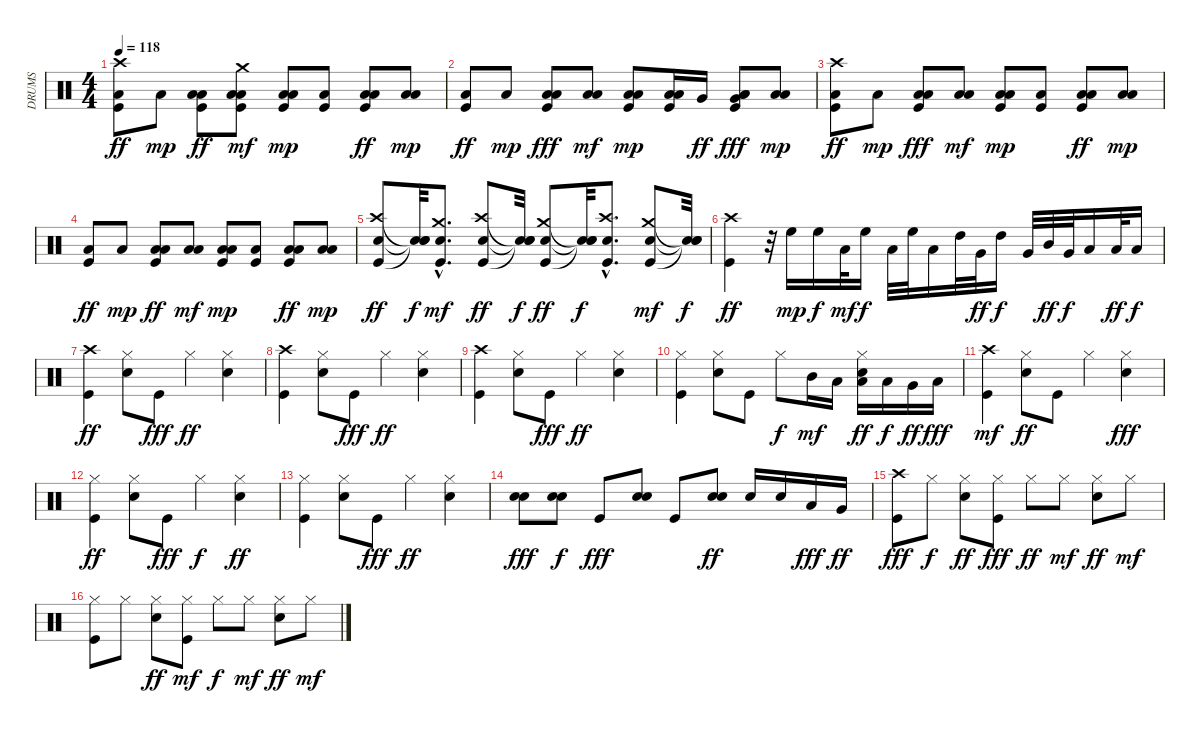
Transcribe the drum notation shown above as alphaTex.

\track ("DRUMS" "DRUMS") {instrument percussion}
\staff {score}
\articulation defaults
\ts (4 4)
\tempo 118
\clef neutral
\ks c
("Kick (hit)" "Low Tom (hit)" "Crash high (hit)").8{dy ff} "Low Floor Tom (hit)".8{dy mp} ("Kick (hit)" "Low Floor Tom (hit)" "Low Tom (hit)").8{dy ff} ("Kick (hit)" "Low Floor Tom (hit)" "Low Tom (hit)" "Crash medium (hit)").8{dy mf} ("Kick (hit)" "Low Floor Tom (hit)" "Low Tom (hit)").8{dy mp} ("Kick (hit)" "Low Floor Tom (hit)").8 ("Kick (hit)" "Low Floor Tom (hit)" "Low Tom (hit)").8{dy ff} ("Low Floor Tom (hit)" "Low Tom (hit)").8{dy mp} |
("Kick (hit)" "Low Tom (hit)").8{dy ff} "Low Floor Tom (hit)".8{dy mp} ("Kick (hit)" "Low Floor Tom (hit)" "Low Tom (hit)").8{dy fff} ("Low Floor Tom (hit)" "Low Tom (hit)").8{dy mf} ("Kick (hit)" "Low Floor Tom (hit)" "Low Tom (hit)").8{dy mp} ("Kick (hit)" "Low Floor Tom (hit)" "Low Tom (hit)").16 "Very Low Tom (hit)".16{dy ff} ("Kick (hit)" "Low Floor Tom (hit)" "Very Low Tom (hit)" "Low Tom (hit)").8{dy fff} ("Low Floor Tom (hit)" "Low Tom (hit)").8{dy mp} |
("Kick (hit)" "Low Tom (hit)" "Crash high (hit)").8{dy ff} "Low Floor Tom (hit)".8{dy mp} ("Kick (hit)" "Low Floor Tom (hit)" "Low Tom (hit)").8{dy fff} ("Low Floor Tom (hit)" "Low Tom (hit)").8{dy mf} ("Kick (hit)" "Low Floor Tom (hit)" "Low Tom (hit)").8{dy mp} ("Kick (hit)" "Low Floor Tom (hit)").8 ("Kick (hit)" "Low Floor Tom (hit)" "Low Tom (hit)").8{dy ff} ("Low Floor Tom (hit)" "Low Tom (hit)").8{dy mp} |
("Kick (hit)" "Low Tom (hit)").8{dy ff} "Low Floor Tom (hit)".8{dy mp} ("Kick (hit)" "Low Floor Tom (hit)" "Low Tom (hit)").8{dy ff} ("Low Floor Tom (hit)" "Low Tom (hit)").8{dy mf} ("Kick (hit)" "Low Floor Tom (hit)" "Low Tom (hit)").8{dy mp} ("Kick (hit)" "Low Floor Tom (hit)").8 ("Kick (hit)" "Low Floor Tom (hit)" "Low Tom (hit)").8{dy ff} ("Low Floor Tom (hit)" "Low Tom (hit)").8{dy mp} |
("Kick (hit)" "Electric Snare (hit)" "Crash high (hit)").8{dy ff} ("Snare (hit)"{t} "Snare (hit)"{t} "Snare (hit)"{t}).32{dy f} ("Kick (hit)"{hac} "Electric Snare (hit)"{hac} "Crash medium (hit)"{hac}).8{d dy mf} ("Kick (hit)" "Electric Snare (hit)" "Crash high (hit)").8{dy ff} ("Snare (hit)"{t} "Snare (hit)"{t} "Snare (hit)"{t}).32{dy f} ("Kick (hit)" "Electric Snare (hit)" "Crash medium (hit)").8{dy ff} ("Snare (hit)"{t} "Snare (hit)"{t} "Snare (hit)"{t}).32{dy f} ("Kick (hit)"{hac} "Electric Snare (hit)"{hac} "Crash high (hit)"{hac}).8{d} ("Kick (hit)" "Electric Snare (hit)" "Crash medium (hit)").8{dy mf} ("Snare (hit)"{t} "Snare (hit)"{t} "Snare (hit)"{t}).32{dy f} |
("Kick (hit)" "Crash high (hit)").4{dy ff} r.32 "High Floor Tom (hit)".16{dy mp} "High Floor Tom (hit)".16{dy f} "Low Tom (hit)".32{dy mf} "High Floor Tom (hit)".16{dy f} "Low Tom (hit)".32 "High Floor Tom (hit)".32 "Low Tom (hit)".16 "High Tom (hit)".32 "Very Low Tom (hit)".32{dy ff} "High Tom (hit)".16{dy f} "Very Low Tom (hit)".32 "Mid Tom (hit)".32{dy ff} "Very Low Tom (hit)".32{dy f} "Low Tom (hit)".16 "Low Floor Tom (hit)".32{dy ff} "Low Tom (hit)".16{dy f} |
("Kick (hit)" "Crash high (hit)").4{dy ff} ("Electric Snare (hit)" "Hi-Hat (closed)").8 "Kick (hit)".8{dy fff} "Hi-Hat (closed)".4{dy ff} ("Electric Snare (hit)" "Hi-Hat (closed)").4 |
("Kick (hit)" "Crash high (hit)").4 ("Electric Snare (hit)" "Hi-Hat (closed)").8 "Kick (hit)".8{dy fff} "Hi-Hat (closed)".4{dy ff} ("Electric Snare (hit)" "Hi-Hat (closed)").4 |
("Kick (hit)" "Crash high (hit)").4 ("Electric Snare (hit)" "Hi-Hat (closed)").8 "Kick (hit)".8{dy fff} "Hi-Hat (closed)".4{dy ff} ("Electric Snare (hit)" "Hi-Hat (closed)").4 |
("Kick (hit)" "Hi-Hat (closed)").4 ("Electric Snare (hit)" "Hi-Hat (closed)").8 "Kick (hit)".8 "Hi-Hat (closed)".8{dy f} "Mid Tom (hit)".16{dy mf} "Low Tom (hit)".16 ("Electric Snare (hit)" "Hi-Hat (closed)" "Low Tom (hit)").16{dy ff} "Low Tom (hit)".16{dy f} "Very Low Tom (hit)".16{dy ff} "Low Floor Tom (hit)".16{dy fff} |
("Kick (hit)" "Crash high (hit)").4{dy mf} ("Electric Snare (hit)" "Hi-Hat (closed)").8{dy ff} "Kick (hit)".8 "Hi-Hat (closed)".4 ("Electric Snare (hit)" "Hi-Hat (closed)").4{dy fff} |
("Kick (hit)" "Hi-Hat (closed)").4{dy ff} ("Electric Snare (hit)" "Hi-Hat (closed)").8 "Kick (hit)".8{dy fff} "Hi-Hat (closed)".4{dy f} ("Electric Snare (hit)" "Hi-Hat (closed)").4{dy ff} |
("Kick (hit)" "Hi-Hat (closed)").4 ("Electric Snare (hit)" "Hi-Hat (closed)").8 "Kick (hit)".8{dy fff} "Hi-Hat (closed)".4{dy ff} ("Electric Snare (hit)" "Hi-Hat (closed)").4 |
("Electric Snare (hit)" "Electric Snare (hit)").8{dy fff} ("Electric Snare (hit)" "Electric Snare (hit)").8{dy f} "Kick (hit)".8{dy fff} ("Electric Snare (hit)" "Electric Snare (hit)").8 "Kick (hit)".8 ("Electric Snare (hit)" "Electric Snare (hit)").8{dy ff} "Electric Snare (hit)".16 "Electric Snare (hit)".16 "Low Tom (hit)".16{dy fff} "Very Low Tom (hit)".16{dy ff} |
("Kick (hit)" "Crash high (hit)").8{dy fff} "Hi-Hat (closed)".8{dy f} ("Electric Snare (hit)" "Hi-Hat (closed)").8{dy ff} ("Kick (hit)" "Hi-Hat (closed)").8{dy fff} "Hi-Hat (closed)".8{dy ff} "Hi-Hat (closed)".8{dy mf} ("Electric Snare (hit)" "Hi-Hat (closed)").8{dy ff} "Hi-Hat (closed)".8{dy mf} |
("Kick (hit)" "Hi-Hat (closed)").8 "Hi-Hat (closed)".8 ("Electric Snare (hit)" "Hi-Hat (closed)").8{dy ff} ("Kick (hit)" "Hi-Hat (closed)").8{dy mf} "Hi-Hat (closed)".8{dy f} "Hi-Hat (closed)".8{dy mf} ("Electric Snare (hit)" "Hi-Hat (closed)").8{dy ff} "Hi-Hat (closed)".8{dy mf}
